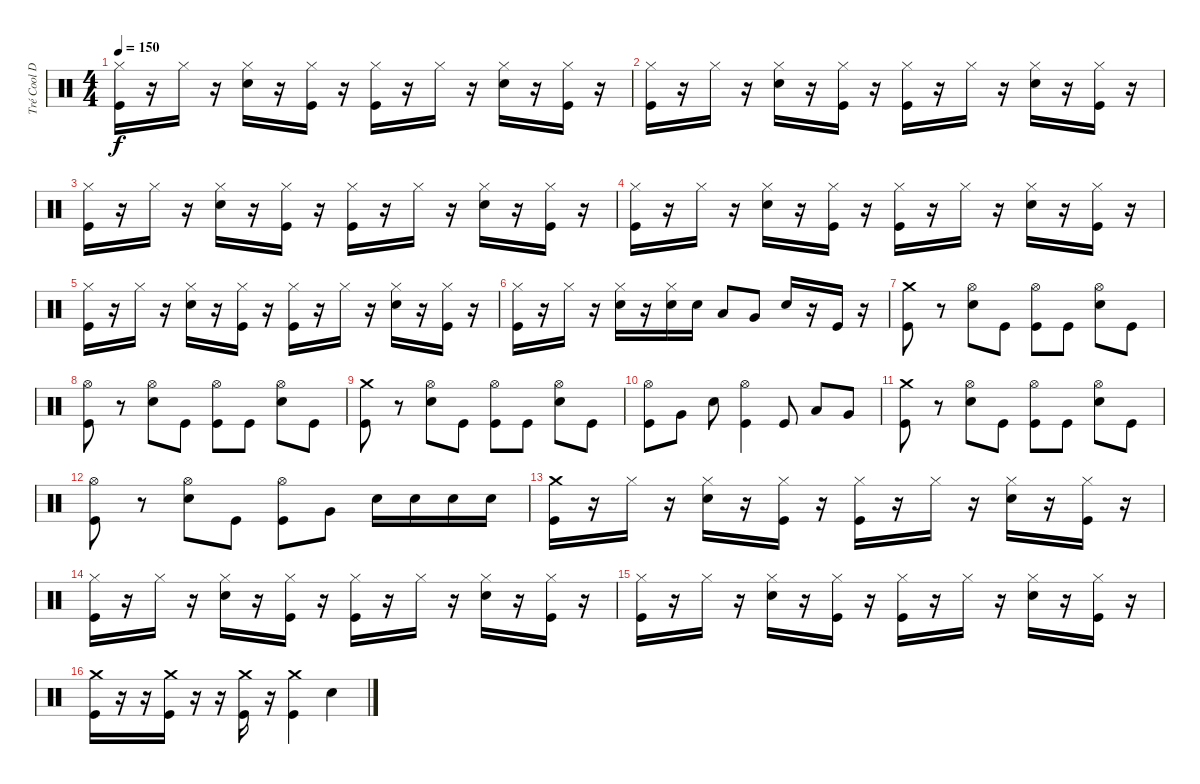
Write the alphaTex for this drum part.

\track ("Tré Cool Drums" "Tré Cool D") {instrument percussion}
\staff {score}
\articulation defaults
\ts (4 4)
\tempo 150
\clef neutral
\ks c
("Hi-Hat (closed)" "Kick (hit)").16{dy f} r.16 "Hi-Hat (closed)".16 r.16 ("Hi-Hat (closed)" "Electric Snare (hit)").16 r.16 ("Hi-Hat (closed)" "Kick (hit)").16 r.16 ("Hi-Hat (closed)" "Kick (hit)").16 r.16 "Hi-Hat (closed)".16 r.16 ("Hi-Hat (closed)" "Electric Snare (hit)").16 r.16 ("Hi-Hat (closed)" "Kick (hit)").16 r.16 |
("Hi-Hat (closed)" "Kick (hit)").16 r.16 "Hi-Hat (closed)".16 r.16 ("Hi-Hat (closed)" "Electric Snare (hit)").16 r.16 ("Hi-Hat (closed)" "Kick (hit)").16 r.16 ("Hi-Hat (closed)" "Kick (hit)").16 r.16 "Hi-Hat (closed)".16 r.16 ("Hi-Hat (closed)" "Electric Snare (hit)").16 r.16 ("Hi-Hat (closed)" "Kick (hit)").16 r.16 |
("Hi-Hat (closed)" "Kick (hit)").16 r.16 "Hi-Hat (closed)".16 r.16 ("Hi-Hat (closed)" "Electric Snare (hit)").16 r.16 ("Hi-Hat (closed)" "Kick (hit)").16 r.16 ("Hi-Hat (closed)" "Kick (hit)").16 r.16 "Hi-Hat (closed)".16 r.16 ("Hi-Hat (closed)" "Electric Snare (hit)").16 r.16 ("Hi-Hat (closed)" "Kick (hit)").16 r.16 |
("Hi-Hat (closed)" "Kick (hit)").16 r.16 "Hi-Hat (closed)".16 r.16 ("Hi-Hat (closed)" "Electric Snare (hit)").16 r.16 ("Hi-Hat (closed)" "Kick (hit)").16 r.16 ("Hi-Hat (closed)" "Kick (hit)").16 r.16 "Hi-Hat (closed)".16 r.16 ("Hi-Hat (closed)" "Electric Snare (hit)").16 r.16 ("Hi-Hat (closed)" "Kick (hit)").16 r.16 |
("Hi-Hat (closed)" "Kick (hit)").16 r.16 "Hi-Hat (closed)".16 r.16 ("Hi-Hat (closed)" "Electric Snare (hit)").16 r.16 ("Hi-Hat (closed)" "Kick (hit)").16 r.16 ("Hi-Hat (closed)" "Kick (hit)").16 r.16 "Hi-Hat (closed)".16 r.16 ("Hi-Hat (closed)" "Electric Snare (hit)").16 r.16 ("Hi-Hat (closed)" "Kick (hit)").16 r.16 |
("Hi-Hat (closed)" "Kick (hit)").16 r.16 "Hi-Hat (closed)".16 r.16 ("Hi-Hat (closed)" "Electric Snare (hit)").16 r.16 ("Hi-Hat (closed)" "Electric Snare (hit)").16 "Electric Snare (hit)".16 "Low Tom (hit)".8 "Very Low Tom (hit)".8 "Electric Snare (hit)".16 r.16 "Kick (hit)".16 r.16 |
("Crash medium (hit)" "Kick (hit)").8 r.8 ("Hi-Hat (open)" "Electric Snare (hit)").8 "Kick (hit)".8 ("Hi-Hat (open)" "Kick (hit)").8 "Kick (hit)".8 ("Hi-Hat (open)" "Electric Snare (hit)").8 "Kick (hit)".8 |
("Hi-Hat (open)" "Kick (hit)").8 r.8 ("Hi-Hat (open)" "Electric Snare (hit)").8 "Kick (hit)".8 ("Hi-Hat (open)" "Kick (hit)").8 "Kick (hit)".8 ("Hi-Hat (open)" "Electric Snare (hit)").8 "Kick (hit)".8 |
("Crash medium (hit)" "Kick (hit)").8 r.8 ("Hi-Hat (open)" "Electric Snare (hit)").8 "Kick (hit)".8 ("Hi-Hat (open)" "Kick (hit)").8 "Kick (hit)".8 ("Hi-Hat (open)" "Electric Snare (hit)").8 "Kick (hit)".8 |
("Hi-Hat (open)" "Kick (hit)").8 "Very Low Tom (hit)".8 "Electric Snare (hit)".8 ("Hi-Hat (open)" "Kick (hit)").4 "Kick (hit)".8 "Low Tom (hit)".8 "Very Low Tom (hit)".8 |
("Crash medium (hit)" "Kick (hit)").8 r.8 ("Hi-Hat (open)" "Electric Snare (hit)").8 "Kick (hit)".8 ("Hi-Hat (open)" "Kick (hit)").8 "Kick (hit)".8 ("Hi-Hat (open)" "Electric Snare (hit)").8 "Kick (hit)".8 |
("Hi-Hat (open)" "Kick (hit)").8 r.8 ("Hi-Hat (open)" "Electric Snare (hit)").8 "Kick (hit)".8 ("Hi-Hat (open)" "Kick (hit)").8 "Very Low Tom (hit)".8 "Electric Snare (hit)".16 "Electric Snare (hit)".16 "Electric Snare (hit)".16 "Electric Snare (hit)".16 |
("Crash medium (hit)" "Kick (hit)").16 r.16 "Hi-Hat (closed)".16 r.16 ("Hi-Hat (closed)" "Electric Snare (hit)").16 r.16 ("Hi-Hat (closed)" "Kick (hit)").16 r.16 ("Hi-Hat (closed)" "Kick (hit)").16 r.16 "Hi-Hat (closed)".16 r.16 ("Hi-Hat (closed)" "Electric Snare (hit)").16 r.16 ("Hi-Hat (closed)" "Kick (hit)").16 r.16 |
("Hi-Hat (closed)" "Kick (hit)").16 r.16 "Hi-Hat (closed)".16 r.16 ("Hi-Hat (closed)" "Electric Snare (hit)").16 r.16 ("Hi-Hat (closed)" "Kick (hit)").16 r.16 ("Hi-Hat (closed)" "Kick (hit)").16 r.16 "Hi-Hat (closed)".16 r.16 ("Hi-Hat (closed)" "Electric Snare (hit)").16 r.16 ("Hi-Hat (closed)" "Kick (hit)").16 r.16 |
("Hi-Hat (closed)" "Kick (hit)").16 r.16 "Hi-Hat (closed)".16 r.16 ("Hi-Hat (closed)" "Electric Snare (hit)").16 r.16 ("Hi-Hat (closed)" "Kick (hit)").16 r.16 ("Hi-Hat (closed)" "Kick (hit)").16 r.16 "Hi-Hat (closed)".16 r.16 ("Hi-Hat (closed)" "Electric Snare (hit)").16 r.16 ("Hi-Hat (closed)" "Kick (hit)").16 r.16 |
("Crash medium (hit)" "Kick (hit)").16 r.16 r.16 ("Crash medium (hit)" "Kick (hit)").16 r.16 r.16 ("Crash medium (hit)" "Kick (hit)").16 r.16 ("Crash medium (hit)" "Kick (hit)").4 "Electric Snare (hit)".4
